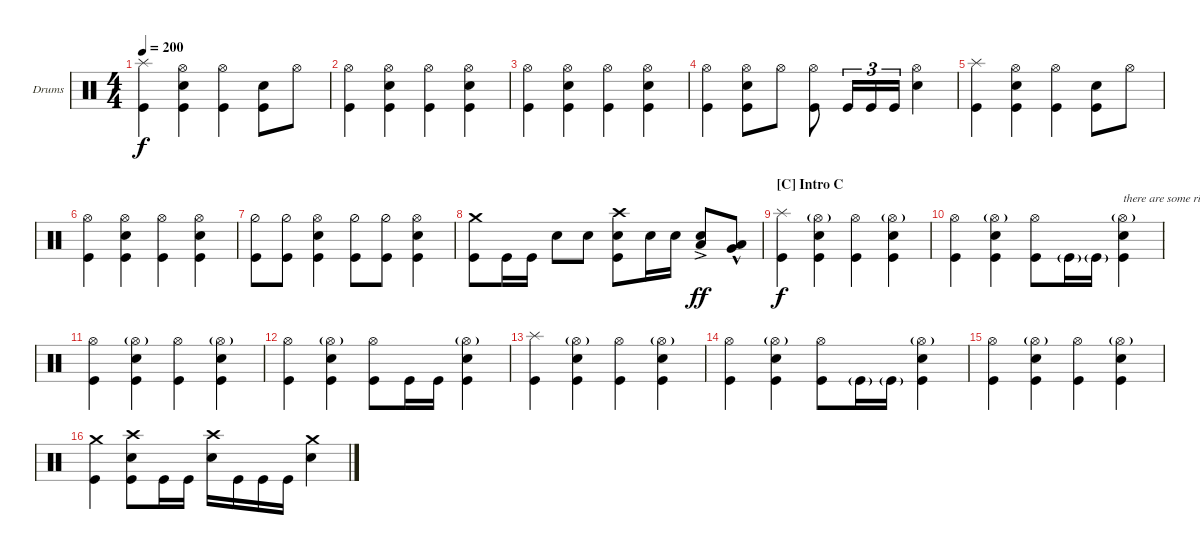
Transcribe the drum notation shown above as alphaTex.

\defaultSystemsLayout 4
\bracketExtendMode groupsimilarinstruments
\firstSystemTrackNameOrientation horizontal
\otherSystemsTrackNameOrientation horizontal
\track ("Drumkit" "Drums") {instrument percussion}
\staff {score}
\articulation defaults
\ts (4 4)
\tempo 200
\clef neutral
\ks c
("Splash (hit)" "Kick (hit)").4{dy f} ("Snare (hit) 2" "Kick (hit)" "Hi-Hat (open)").4 ("Kick (hit)" "Hi-Hat (open)").4 ("Snare (hit) 2" "Kick (hit)").8 "Hi-Hat (open)".8 |
("Kick (hit)" "Hi-Hat (open)").4 ("Kick (hit)" "Snare (hit) 2" "Hi-Hat (open)").4 ("Kick (hit)" "Hi-Hat (open)").4 ("Kick (hit)" "Snare (hit) 2" "Hi-Hat (open)").4 |
("Kick (hit)" "Hi-Hat (open)").4 ("Kick (hit)" "Snare (hit) 2" "Hi-Hat (open)").4 ("Kick (hit)" "Hi-Hat (open)").4 ("Kick (hit)" "Snare (hit) 2" "Hi-Hat (open)").4 |
("Kick (hit)" "Hi-Hat (open)").4 ("Snare (hit) 2" "Kick (hit)" "Hi-Hat (open)").8 "Hi-Hat (open)".8 ("Kick (hit)" "Hi-Hat (open)").8 "Kick (hit)".16{tu (3 2)} "Kick (hit)".16{tu (3 2)} "Kick (hit)".16{tu (3 2)} ("Hi-Hat (open)" "Snare (hit) 2").4 |
("Splash (hit)" "Kick (hit)").4 ("Snare (hit) 2" "Kick (hit)" "Hi-Hat (open)").4 ("Kick (hit)" "Hi-Hat (open)").4 ("Snare (hit) 2" "Kick (hit)").8 "Hi-Hat (open)".8 |
("Kick (hit)" "Hi-Hat (open)").4 ("Kick (hit)" "Snare (hit) 2" "Hi-Hat (open)").4 ("Kick (hit)" "Hi-Hat (open)").4 ("Kick (hit)" "Snare (hit) 2" "Hi-Hat (open)").4 |
("Kick (hit)" "Hi-Hat (half)").8 ("Kick (hit)" "Hi-Hat (half)").8 ("Snare (hit) 2" "Kick (hit)" "Hi-Hat (open)").4 ("Kick (hit)" "Hi-Hat (half)").8 ("Kick (hit)" "Hi-Hat (half)").8 ("Snare (hit) 2" "Kick (hit)" "Hi-Hat (open)").4 |
("Kick (hit)" "Crash medium (hit)").8 "Kick (hit)".16 "Kick (hit)".16 "Snare (hit) 2".8 "Snare (hit) 2".8 ("Kick (hit)" "Snare (hit) 2" "Crash high (hit)").8 "Snare (hit) 2".16 "Snare (hit) 2".16 ("Low Tom (hit)"{ac} "Snare (hit) 2").8{dy ff} ("Very Low Tom (hit)"{hac} "Low Tom (hit)").8 |
\section ("C" "Intro C")
("Splash (hit)" "Kick (hit)").4{dy f} ("Snare (hit) 2" "Kick (hit)" "Hi-Hat (open)"{g}).4 ("Kick (hit)" "Hi-Hat (open)").4 ("Snare (hit) 2" "Kick (hit)" "Hi-Hat (open)"{g}).4 |
("Kick (hit)" "Hi-Hat (open)").4 ("Snare (hit) 2" "Kick (hit)" "Hi-Hat (open)"{g}).4 ("Kick (hit)" "Hi-Hat (open)").8 "Kick (hit)"{g}.16 "Kick (hit)"{g}.16 ("Kick (hit)" "Snare (hit) 2" "Hi-Hat (open)"{g}).4{txt "there are some rimshots in here but I take them away because they don't work while exporting"} |
("Kick (hit)" "Hi-Hat (open)").4 ("Snare (hit) 2" "Kick (hit)" "Hi-Hat (open)"{g}).4 ("Kick (hit)" "Hi-Hat (open)").4 ("Snare (hit) 2" "Kick (hit)" "Hi-Hat (open)"{g}).4 |
("Kick (hit)" "Hi-Hat (open)").4 ("Snare (hit) 2" "Kick (hit)" "Hi-Hat (open)"{g}).4 ("Kick (hit)" "Hi-Hat (open)").8 "Kick (hit)".16 "Kick (hit)".16 ("Kick (hit)" "Snare (hit) 2" "Hi-Hat (open)"{g}).4 |
("Splash (hit)" "Kick (hit)").4 ("Snare (hit) 2" "Kick (hit)" "Hi-Hat (open)"{g}).4 ("Kick (hit)" "Hi-Hat (open)").4 ("Snare (hit) 2" "Kick (hit)" "Hi-Hat (open)"{g}).4 |
("Kick (hit)" "Hi-Hat (open)").4 ("Snare (hit) 2" "Kick (hit)" "Hi-Hat (open)"{g}).4 ("Kick (hit)" "Hi-Hat (open)").8 "Kick (hit)"{g}.16 "Kick (hit)"{g}.16 ("Kick (hit)" "Snare (hit) 2" "Hi-Hat (open)"{g}).4 |
("Kick (hit)" "Hi-Hat (open)").4 ("Snare (hit) 2" "Kick (hit)" "Hi-Hat (open)"{g}).4 ("Kick (hit)" "Hi-Hat (open)").4 ("Snare (hit) 2" "Kick (hit)" "Hi-Hat (open)"{g}).4 |
("Kick (hit)" "Crash medium (hit)").4 ("Crash high (hit)" "Kick (hit)" "Snare (hit) 2").8 "Kick (hit)".16 "Kick (hit)".16 ("Crash high (hit)" "Snare (hit) 2").16 "Kick (hit)".16 "Kick (hit)".16 "Kick (hit)".16 ("Crash medium (hit)" "Snare (hit) 2").4
